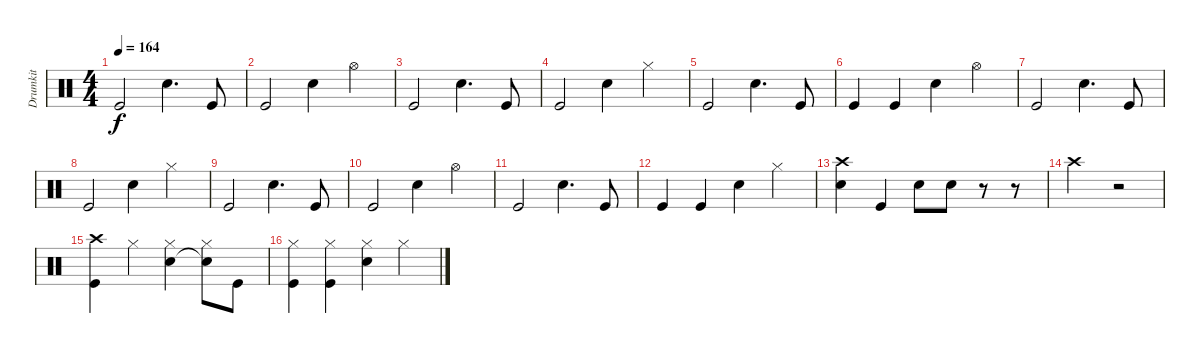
\track ("Drumkit" "Drumkit") {instrument percussion}
\staff {score}
\articulation defaults
\ts (4 4)
\tempo 164
\clef neutral
\ks c "Kick (hit)".2{dy f} "Snare (hit) 2".4{d} "Kick (hit)".8
|
"Kick (hit)".2 "Snare (hit) 2".4 "Hi-Hat (open)".4 |
"Kick (hit)".2 "Snare (hit) 2".4{d} "Kick (hit)".8 |
"Kick (hit)".2 "Snare (hit) 2".4 "Hi-Hat (closed)".4 |
"Kick (hit)".2 "Snare (hit) 2".4{d} "Kick (hit)".8 |
"Kick (hit)".4 "Kick (hit)".4 "Snare (hit) 2".4 "Hi-Hat (open)".4 |
"Kick (hit)".2 "Snare (hit) 2".4{d} "Kick (hit)".8 |
"Kick (hit)".2 "Snare (hit) 2".4 "Hi-Hat (closed)".4 |
"Kick (hit)".2 "Snare (hit) 2".4{d} "Kick (hit)".8 |
"Kick (hit)".2 "Snare (hit) 2".4 "Hi-Hat (open)".4 |
"Kick (hit)".2 "Snare (hit) 2".4{d} "Kick (hit)".8 |
"Kick (hit)".4 "Kick (hit)".4 "Snare (hit) 2".4 "Hi-Hat (closed)".4 |
("Crash high (hit)" "Snare (hit) 2").4 "Kick (hit)".4 "Snare (hit) 2".8 "Snare (hit) 2".8 r.8 r.8 |
"Crash high (hit)".2 r.2 |
("Crash high (hit)" "Kick (hit)").4 "Hi-Hat (closed)".4 ("Hi-Hat (closed)" "Snare (hit) 2").4 ("Hi-Hat (closed)" "Snare (hit) 2"{t}).8 "Kick (hit)".8 |
("Hi-Hat (closed)" "Kick (hit)").4 ("Hi-Hat (closed)" "Kick (hit)").4 ("Hi-Hat (closed)" "Snare (hit) 2").4 "Hi-Hat (closed)".4
